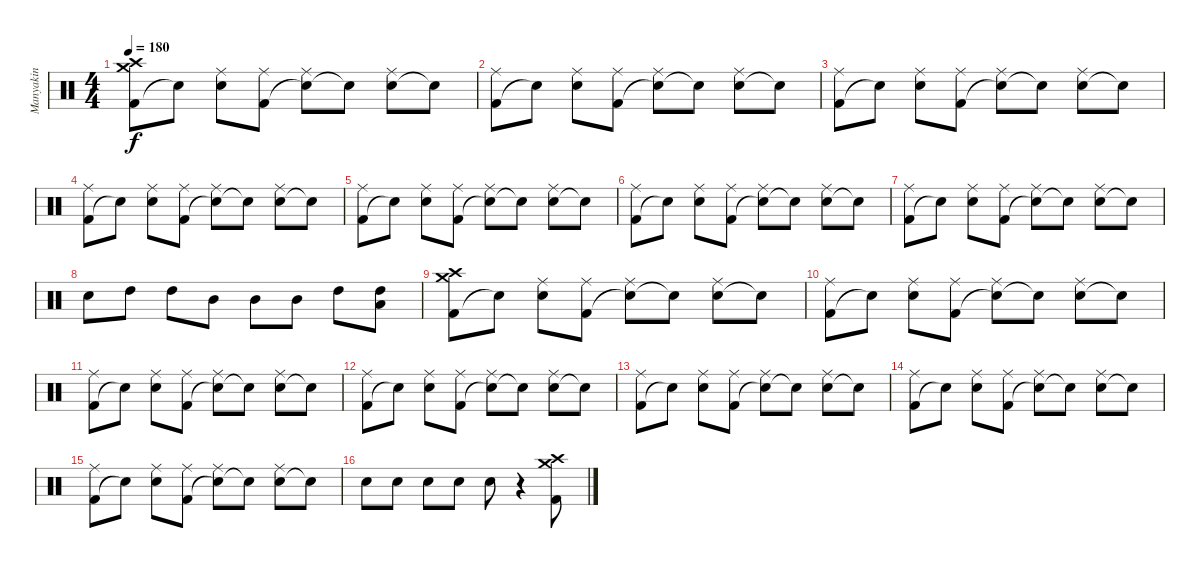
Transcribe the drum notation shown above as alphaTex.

\track ("Manyakin" "Manyakin") {instrument percussion}
\staff {score}
\articulation defaults
\ts (4 4)
\tempo 180
\clef neutral
\ks c
("Kick (hit) 2" "Crash high (hit)" "Crash medium (hit)").8{dy f} "Snare (hit)"{t}.8 ("Snare (hit) 2" "Ride (middle)").8 ("Kick (hit) 2" "Ride (middle)").8 ("Snare (hit)"{t} "Ride (middle)").8 "Snare (hit)"{t}.8 ("Snare (hit) 2" "Ride (middle)").8 "Snare (hit) 2"{t}.8 |
("Kick (hit) 2" "Ride (middle)").8 "Snare (hit)"{t}.8 ("Snare (hit) 2" "Ride (middle)").8 ("Kick (hit) 2" "Ride (middle)").8 ("Snare (hit)"{t} "Ride (middle)").8 "Snare (hit)"{t}.8 ("Snare (hit) 2" "Ride (middle)").8 "Snare (hit) 2"{t}.8 |
("Kick (hit) 2" "Ride (middle)").8 "Snare (hit)"{t}.8 ("Snare (hit) 2" "Ride (middle)").8 ("Kick (hit) 2" "Ride (middle)").8 ("Snare (hit)"{t} "Ride (middle)").8 "Snare (hit)"{t}.8 ("Snare (hit) 2" "Ride (middle)").8 "Snare (hit) 2"{t}.8 |
("Kick (hit) 2" "Ride (middle)").8 "Snare (hit)"{t}.8 ("Snare (hit) 2" "Ride (middle)").8 ("Kick (hit) 2" "Ride (middle)").8 ("Snare (hit)"{t} "Ride (middle)").8 "Snare (hit)"{t}.8 ("Snare (hit) 2" "Ride (middle)").8 "Snare (hit) 2"{t}.8 |
("Kick (hit) 2" "Ride (middle)").8 "Snare (hit)"{t}.8 ("Snare (hit) 2" "Ride (middle)").8 ("Kick (hit) 2" "Ride (middle)").8 ("Snare (hit)"{t} "Ride (middle)").8 "Snare (hit)"{t}.8 ("Snare (hit) 2" "Ride (middle)").8 "Snare (hit) 2"{t}.8 |
("Kick (hit) 2" "Ride (middle)").8 "Snare (hit)"{t}.8 ("Snare (hit) 2" "Ride (middle)").8 ("Kick (hit) 2" "Ride (middle)").8 ("Snare (hit)"{t} "Ride (middle)").8 "Snare (hit)"{t}.8 ("Snare (hit) 2" "Ride (middle)").8 "Snare (hit) 2"{t}.8 |
("Kick (hit) 2" "Ride (middle)").8 "Snare (hit)"{t}.8 ("Snare (hit) 2" "Ride (middle)").8 ("Kick (hit) 2" "Ride (middle)").8 ("Snare (hit)"{t} "Ride (middle)").8 "Snare (hit)"{t}.8 ("Snare (hit) 2" "Ride (middle)").8 "Snare (hit) 2"{t}.8 |
"Electric Snare (hit)".8 "High Tom (hit)".8 "High Tom (hit)".8 "Mid Tom (hit)".8 "Mid Tom (hit)".8 "Mid Tom (hit)".8 "High Tom (hit)".8 ("High Tom (hit)" "Low Tom (hit)").8 |
("Kick (hit) 2" "Crash high (hit)" "Crash medium (hit)").8 "Snare (hit)"{t}.8 ("Snare (hit) 2" "Ride (middle)").8 ("Kick (hit) 2" "Ride (middle)").8 ("Snare (hit)"{t} "Ride (middle)").8 "Snare (hit)"{t}.8 ("Snare (hit) 2" "Ride (middle)").8 "Snare (hit) 2"{t}.8 |
("Kick (hit) 2" "Ride (middle)").8 "Snare (hit)"{t}.8 ("Snare (hit) 2" "Ride (middle)").8 ("Kick (hit) 2" "Ride (middle)").8 ("Snare (hit)"{t} "Ride (middle)").8 "Snare (hit)"{t}.8 ("Snare (hit) 2" "Ride (middle)").8 "Snare (hit) 2"{t}.8 |
("Kick (hit) 2" "Ride (middle)").8 "Snare (hit)"{t}.8 ("Snare (hit) 2" "Ride (middle)").8 ("Kick (hit) 2" "Ride (middle)").8 ("Snare (hit)"{t} "Ride (middle)").8 "Snare (hit)"{t}.8 ("Snare (hit) 2" "Ride (middle)").8 "Snare (hit) 2"{t}.8 |
("Kick (hit) 2" "Ride (middle)").8 "Snare (hit)"{t}.8 ("Snare (hit) 2" "Ride (middle)").8 ("Kick (hit) 2" "Ride (middle)").8 ("Snare (hit)"{t} "Ride (middle)").8 "Snare (hit)"{t}.8 ("Snare (hit) 2" "Ride (middle)").8 "Snare (hit) 2"{t}.8 |
("Kick (hit) 2" "Ride (middle)").8 "Snare (hit)"{t}.8 ("Snare (hit) 2" "Ride (middle)").8 ("Kick (hit) 2" "Ride (middle)").8 ("Snare (hit)"{t} "Ride (middle)").8 "Snare (hit)"{t}.8 ("Snare (hit) 2" "Ride (middle)").8 "Snare (hit) 2"{t}.8 |
("Kick (hit) 2" "Ride (middle)").8 "Snare (hit)"{t}.8 ("Snare (hit) 2" "Ride (middle)").8 ("Kick (hit) 2" "Ride (middle)").8 ("Snare (hit)"{t} "Ride (middle)").8 "Snare (hit)"{t}.8 ("Snare (hit) 2" "Ride (middle)").8 "Snare (hit) 2"{t}.8 |
("Kick (hit) 2" "Ride (middle)").8 "Snare (hit)"{t}.8 ("Snare (hit) 2" "Ride (middle)").8 ("Kick (hit) 2" "Ride (middle)").8 ("Snare (hit)"{t} "Ride (middle)").8 "Snare (hit)"{t}.8 ("Snare (hit) 2" "Ride (middle)").8 "Snare (hit) 2"{t}.8 |
"Snare (hit) 2".8 "Snare (hit) 2".8 "Snare (hit) 2".8 "Snare (hit) 2".8 "Snare (hit) 2".8 r.4 ("Kick (hit) 2" "Crash high (hit)" "Crash medium (hit)").8
